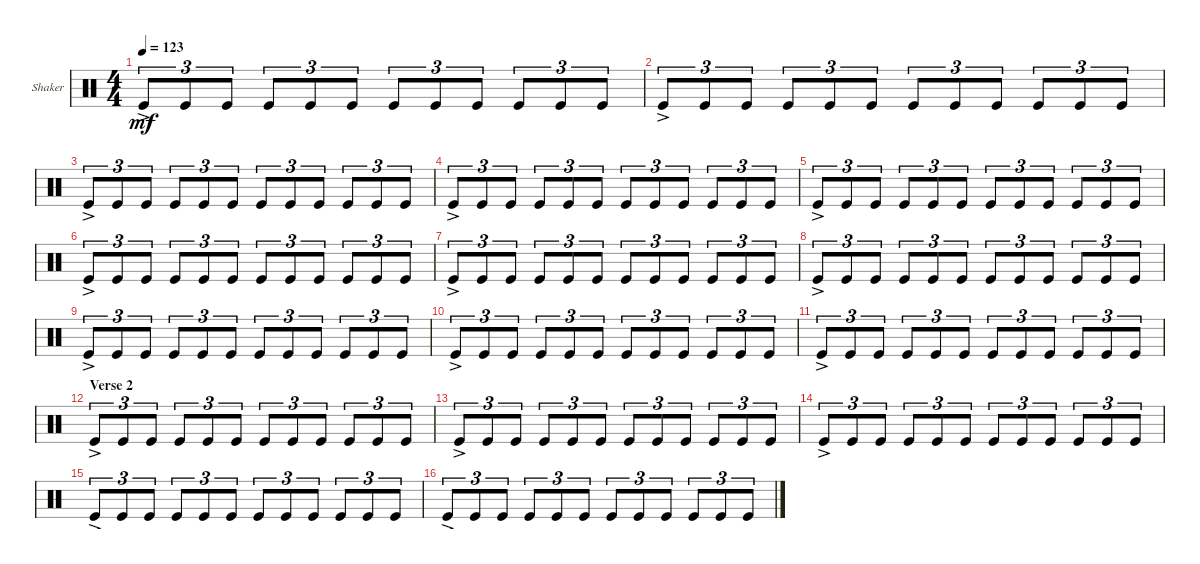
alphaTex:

\defaultSystemsLayout 4
\bracketExtendMode groupsimilarinstruments
\firstSystemTrackNameOrientation horizontal
\otherSystemsTrackNameOrientation horizontal
\track ("Shaker" "Shaker") {multiBarRest instrument percussion}
\staff {score}
\articulation defaults
\ts (4 4)
\tempo 123
\clef neutral
\ks c "Kick (hit)"{ac}.8{tu (3 2) dy mf} "Kick (hit)".8{tu (3 2)} "Kick (hit)".8{tu (3 2)} "Kick (hit)".8{tu (3 2)} "Kick (hit)".8{tu (3 2)} "Kick (hit)".8{tu (3 2)} "Kick (hit)".8{tu (3 2)} "Kick (hit)".8{tu (3 2)} "Kick (hit)".8{tu (3 2)} "Kick (hit)".8{tu (3 2)} "Kick (hit)".8{tu (3 2)} "Kick (hit)".8{tu (3 2)}
|
"Kick (hit)"{ac}.8{tu (3 2)} "Kick (hit)".8{tu (3 2)} "Kick (hit)".8{tu (3 2)} "Kick (hit)".8{tu (3 2)} "Kick (hit)".8{tu (3 2)} "Kick (hit)".8{tu (3 2)} "Kick (hit)".8{tu (3 2)} "Kick (hit)".8{tu (3 2)} "Kick (hit)".8{tu (3 2)} "Kick (hit)".8{tu (3 2)} "Kick (hit)".8{tu (3 2)} "Kick (hit)".8{tu (3 2)} |
"Kick (hit)"{ac}.8{tu (3 2)} "Kick (hit)".8{tu (3 2)} "Kick (hit)".8{tu (3 2)} "Kick (hit)".8{tu (3 2)} "Kick (hit)".8{tu (3 2)} "Kick (hit)".8{tu (3 2)} "Kick (hit)".8{tu (3 2)} "Kick (hit)".8{tu (3 2)} "Kick (hit)".8{tu (3 2)} "Kick (hit)".8{tu (3 2)} "Kick (hit)".8{tu (3 2)} "Kick (hit)".8{tu (3 2)} |
"Kick (hit)"{ac}.8{tu (3 2)} "Kick (hit)".8{tu (3 2)} "Kick (hit)".8{tu (3 2)} "Kick (hit)".8{tu (3 2)} "Kick (hit)".8{tu (3 2)} "Kick (hit)".8{tu (3 2)} "Kick (hit)".8{tu (3 2)} "Kick (hit)".8{tu (3 2)} "Kick (hit)".8{tu (3 2)} "Kick (hit)".8{tu (3 2)} "Kick (hit)".8{tu (3 2)} "Kick (hit)".8{tu (3 2)} |
"Kick (hit)"{ac}.8{tu (3 2)} "Kick (hit)".8{tu (3 2)} "Kick (hit)".8{tu (3 2)} "Kick (hit)".8{tu (3 2)} "Kick (hit)".8{tu (3 2)} "Kick (hit)".8{tu (3 2)} "Kick (hit)".8{tu (3 2)} "Kick (hit)".8{tu (3 2)} "Kick (hit)".8{tu (3 2)} "Kick (hit)".8{tu (3 2)} "Kick (hit)".8{tu (3 2)} "Kick (hit)".8{tu (3 2)} |
"Kick (hit)"{ac}.8{tu (3 2)} "Kick (hit)".8{tu (3 2)} "Kick (hit)".8{tu (3 2)} "Kick (hit)".8{tu (3 2)} "Kick (hit)".8{tu (3 2)} "Kick (hit)".8{tu (3 2)} "Kick (hit)".8{tu (3 2)} "Kick (hit)".8{tu (3 2)} "Kick (hit)".8{tu (3 2)} "Kick (hit)".8{tu (3 2)} "Kick (hit)".8{tu (3 2)} "Kick (hit)".8{tu (3 2)} |
"Kick (hit)"{ac}.8{tu (3 2)} "Kick (hit)".8{tu (3 2)} "Kick (hit)".8{tu (3 2)} "Kick (hit)".8{tu (3 2)} "Kick (hit)".8{tu (3 2)} "Kick (hit)".8{tu (3 2)} "Kick (hit)".8{tu (3 2)} "Kick (hit)".8{tu (3 2)} "Kick (hit)".8{tu (3 2)} "Kick (hit)".8{tu (3 2)} "Kick (hit)".8{tu (3 2)} "Kick (hit)".8{tu (3 2)} |
"Kick (hit)"{ac}.8{tu (3 2)} "Kick (hit)".8{tu (3 2)} "Kick (hit)".8{tu (3 2)} "Kick (hit)".8{tu (3 2)} "Kick (hit)".8{tu (3 2)} "Kick (hit)".8{tu (3 2)} "Kick (hit)".8{tu (3 2)} "Kick (hit)".8{tu (3 2)} "Kick (hit)".8{tu (3 2)} "Kick (hit)".8{tu (3 2)} "Kick (hit)".8{tu (3 2)} "Kick (hit)".8{tu (3 2)} |
"Kick (hit)"{ac}.8{tu (3 2)} "Kick (hit)".8{tu (3 2)} "Kick (hit)".8{tu (3 2)} "Kick (hit)".8{tu (3 2)} "Kick (hit)".8{tu (3 2)} "Kick (hit)".8{tu (3 2)} "Kick (hit)".8{tu (3 2)} "Kick (hit)".8{tu (3 2)} "Kick (hit)".8{tu (3 2)} "Kick (hit)".8{tu (3 2)} "Kick (hit)".8{tu (3 2)} "Kick (hit)".8{tu (3 2)} |
"Kick (hit)"{ac}.8{tu (3 2)} "Kick (hit)".8{tu (3 2)} "Kick (hit)".8{tu (3 2)} "Kick (hit)".8{tu (3 2)} "Kick (hit)".8{tu (3 2)} "Kick (hit)".8{tu (3 2)} "Kick (hit)".8{tu (3 2)} "Kick (hit)".8{tu (3 2)} "Kick (hit)".8{tu (3 2)} "Kick (hit)".8{tu (3 2)} "Kick (hit)".8{tu (3 2)} "Kick (hit)".8{tu (3 2)} |
"Kick (hit)"{ac}.8{tu (3 2)} "Kick (hit)".8{tu (3 2)} "Kick (hit)".8{tu (3 2)} "Kick (hit)".8{tu (3 2)} "Kick (hit)".8{tu (3 2)} "Kick (hit)".8{tu (3 2)} "Kick (hit)".8{tu (3 2)} "Kick (hit)".8{tu (3 2)} "Kick (hit)".8{tu (3 2)} "Kick (hit)".8{tu (3 2)} "Kick (hit)".8{tu (3 2)} "Kick (hit)".8{tu (3 2)} |
\section ("" "Verse 2")
"Kick (hit)"{ac}.8{tu (3 2)} "Kick (hit)".8{tu (3 2)} "Kick (hit)".8{tu (3 2)} "Kick (hit)".8{tu (3 2)} "Kick (hit)".8{tu (3 2)} "Kick (hit)".8{tu (3 2)} "Kick (hit)".8{tu (3 2)} "Kick (hit)".8{tu (3 2)} "Kick (hit)".8{tu (3 2)} "Kick (hit)".8{tu (3 2)} "Kick (hit)".8{tu (3 2)} "Kick (hit)".8{tu (3 2)} |
"Kick (hit)"{ac}.8{tu (3 2)} "Kick (hit)".8{tu (3 2)} "Kick (hit)".8{tu (3 2)} "Kick (hit)".8{tu (3 2)} "Kick (hit)".8{tu (3 2)} "Kick (hit)".8{tu (3 2)} "Kick (hit)".8{tu (3 2)} "Kick (hit)".8{tu (3 2)} "Kick (hit)".8{tu (3 2)} "Kick (hit)".8{tu (3 2)} "Kick (hit)".8{tu (3 2)} "Kick (hit)".8{tu (3 2)} |
"Kick (hit)"{ac}.8{tu (3 2)} "Kick (hit)".8{tu (3 2)} "Kick (hit)".8{tu (3 2)} "Kick (hit)".8{tu (3 2)} "Kick (hit)".8{tu (3 2)} "Kick (hit)".8{tu (3 2)} "Kick (hit)".8{tu (3 2)} "Kick (hit)".8{tu (3 2)} "Kick (hit)".8{tu (3 2)} "Kick (hit)".8{tu (3 2)} "Kick (hit)".8{tu (3 2)} "Kick (hit)".8{tu (3 2)} |
"Kick (hit)"{ac}.8{tu (3 2)} "Kick (hit)".8{tu (3 2)} "Kick (hit)".8{tu (3 2)} "Kick (hit)".8{tu (3 2)} "Kick (hit)".8{tu (3 2)} "Kick (hit)".8{tu (3 2)} "Kick (hit)".8{tu (3 2)} "Kick (hit)".8{tu (3 2)} "Kick (hit)".8{tu (3 2)} "Kick (hit)".8{tu (3 2)} "Kick (hit)".8{tu (3 2)} "Kick (hit)".8{tu (3 2)} |
"Kick (hit)"{ac}.8{tu (3 2)} "Kick (hit)".8{tu (3 2)} "Kick (hit)".8{tu (3 2)} "Kick (hit)".8{tu (3 2)} "Kick (hit)".8{tu (3 2)} "Kick (hit)".8{tu (3 2)} "Kick (hit)".8{tu (3 2)} "Kick (hit)".8{tu (3 2)} "Kick (hit)".8{tu (3 2)} "Kick (hit)".8{tu (3 2)} "Kick (hit)".8{tu (3 2)} "Kick (hit)".8{tu (3 2)}
